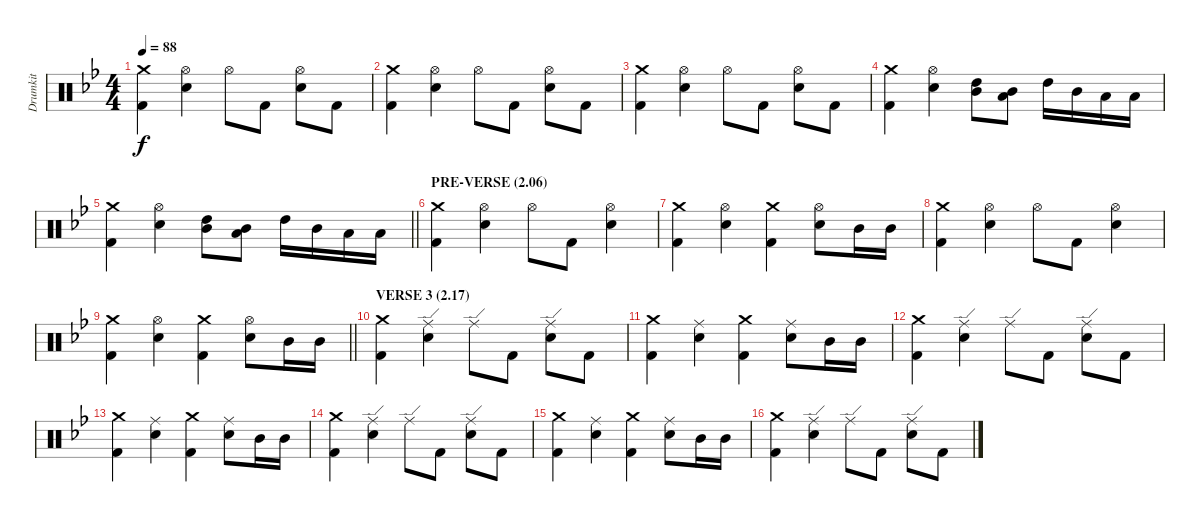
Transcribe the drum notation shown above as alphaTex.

\track ("Drumkit" "Drumkit") {instrument percussion}
\staff {score}
\articulation defaults
\ts (4 4)
\tempo 88
\clef neutral
\ks bb
("Kick (hit) 2" "Crash medium (hit)").4{dy f} ("Snare (hit) 2" "Hi-Hat (open)").4 "Hi-Hat (open)".8 "Kick (hit) 2".8 ("Snare (hit) 2" "Hi-Hat (open)").8 "Kick (hit) 2".8 |
("Kick (hit) 2" "Crash medium (hit)").4 ("Snare (hit) 2" "Hi-Hat (open)").4 "Hi-Hat (open)".8 "Kick (hit) 2".8 ("Snare (hit) 2" "Hi-Hat (open)").8 "Kick (hit) 2".8 |
("Kick (hit) 2" "Crash medium (hit)").4 ("Snare (hit) 2" "Hi-Hat (open)").4 "Hi-Hat (open)".8 "Kick (hit) 2".8 ("Snare (hit) 2" "Hi-Hat (open)").8 "Kick (hit) 2".8 |
("Kick (hit) 2" "Crash medium (hit)").4 ("Snare (hit) 2" "Hi-Hat (open)").4 ("High Tom (hit)" "Mid Tom (hit)").8 ("Mid Tom (hit)" "Low Tom (hit)").8 "High Tom (hit)".16 "Mid Tom (hit)".16 "Low Tom (hit)".16 "Low Tom (hit)".16 |
\barLineRight lightlight
("Kick (hit) 2" "Crash medium (hit)").4 ("Snare (hit) 2" "Hi-Hat (open)").4 ("High Tom (hit)" "Mid Tom (hit)").8 ("Mid Tom (hit)" "Low Tom (hit)").8 "High Tom (hit)".16 "Mid Tom (hit)".16 "Low Tom (hit)".16 "Low Tom (hit)".16 |
\section ("" "PRE-VERSE (2.06)")
("Kick (hit) 2" "Crash medium (hit)").4 ("Snare (hit) 2" "Hi-Hat (open)").4 "Hi-Hat (open)".8 "Kick (hit) 2".8 ("Snare (hit) 2" "Hi-Hat (open)").4 |
("Kick (hit) 2" "Crash medium (hit)").4 ("Snare (hit) 2" "Hi-Hat (open)").4 ("Kick (hit) 2" "Crash medium (hit)").4 ("Snare (hit) 2" "Hi-Hat (open)").8 "Mid Tom (hit)".16 "Mid Tom (hit)".16 |
("Kick (hit) 2" "Crash medium (hit)").4 ("Snare (hit) 2" "Hi-Hat (open)").4 "Hi-Hat (open)".8 "Kick (hit) 2".8 ("Snare (hit) 2" "Hi-Hat (open)").4 |
\barLineRight lightlight
("Kick (hit) 2" "Crash medium (hit)").4 ("Snare (hit) 2" "Hi-Hat (open)").4 ("Kick (hit) 2" "Crash medium (hit)").4 ("Snare (hit) 2" "Hi-Hat (open)").8 "Mid Tom (hit)".16 "Mid Tom (hit)".16 |
\section ("" "VERSE 3 (2.17)")
("Kick (hit) 2" "Crash medium (hit)").4 ("Snare (hit) 2" "Ride (edge)").4 "Ride (edge)".8 "Kick (hit) 2".8 ("Snare (hit) 2" "Ride (edge)").8 "Kick (hit) 2".8 |
("Kick (hit) 2" "Crash medium (hit)").4 ("Snare (hit) 2" "Ride (middle)").4 ("Kick (hit) 2" "Crash medium (hit)").4 ("Snare (hit) 2" "Ride (middle)").8 "Mid Tom (hit)".16 "Mid Tom (hit)".16 |
("Kick (hit) 2" "Crash medium (hit)").4 ("Snare (hit) 2" "Ride (edge)").4 "Ride (edge)".8 "Kick (hit) 2".8 ("Snare (hit) 2" "Ride (edge)").8 "Kick (hit) 2".8 |
("Kick (hit) 2" "Crash medium (hit)").4 ("Snare (hit) 2" "Ride (middle)").4 ("Kick (hit) 2" "Crash medium (hit)").4 ("Snare (hit) 2" "Ride (middle)").8 "Mid Tom (hit)".16 "Mid Tom (hit)".16 |
("Kick (hit) 2" "Crash medium (hit)").4 ("Snare (hit) 2" "Ride (edge)").4 "Ride (edge)".8 "Kick (hit) 2".8 ("Snare (hit) 2" "Ride (edge)").8 "Kick (hit) 2".8 |
("Kick (hit) 2" "Crash medium (hit)").4 ("Snare (hit) 2" "Ride (middle)").4 ("Kick (hit) 2" "Crash medium (hit)").4 ("Snare (hit) 2" "Ride (middle)").8 "Mid Tom (hit)".16 "Mid Tom (hit)".16 |
("Kick (hit) 2" "Crash medium (hit)").4 ("Snare (hit) 2" "Ride (edge)").4 "Ride (edge)".8 "Kick (hit) 2".8 ("Snare (hit) 2" "Ride (edge)").8 "Kick (hit) 2".8
